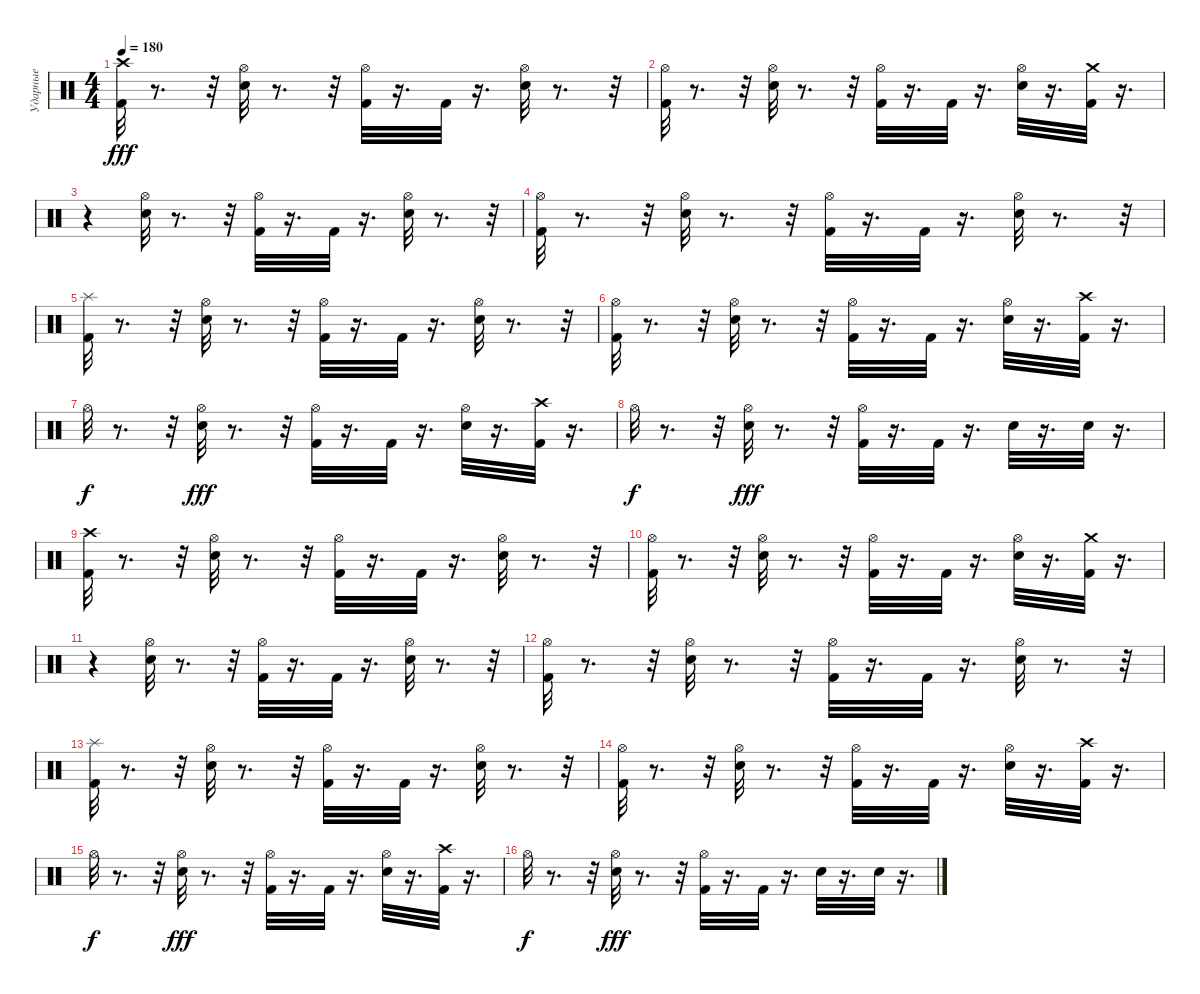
\track ("Ударные" "Ударные") {instrument percussion}
\staff {score}
\articulation defaults
\ts (4 4)
\tempo 180
\clef neutral
\ks c
("Crash high (hit)" "Kick (hit) 2").32{dy fff} r.8{d} r.32 ("Snare (hit) 2" "Hi-Hat (open)").32 r.8{d} r.32 ("Hi-Hat (open)" "Kick (hit) 2").32 r.16{d} "Kick (hit) 2".32 r.16{d} ("Hi-Hat (open)" "Snare (hit) 2").32 r.8{d} r.32 |
("Hi-Hat (open)" "Kick (hit) 2").32 r.8{d} r.32 ("Snare (hit) 2" "Hi-Hat (open)").32 r.8{d} r.32 ("Kick (hit) 2" "Hi-Hat (open)").32 r.16{d} "Kick (hit) 2".32 r.16{d} ("Hi-Hat (open)" "Snare (hit) 2").32 r.16{d} ("Kick (hit) 2" "Crash medium (hit)").32 r.16{d} |
r.4 ("Hi-Hat (open)" "Snare (hit) 2").32 r.8{d} r.32 ("Kick (hit) 2" "Hi-Hat (open)").32 r.16{d} "Kick (hit) 2".32 r.16{d} ("Hi-Hat (open)" "Snare (hit) 2").32 r.8{d} r.32 |
("Hi-Hat (open)" "Kick (hit) 2").32 r.8{d} r.32 ("Snare (hit) 2" "Hi-Hat (open)").32 r.8{d} r.32 ("Hi-Hat (open)" "Kick (hit) 2").32 r.16{d} "Kick (hit) 2".32 r.16{d} ("Snare (hit) 2" "Hi-Hat (open)").32 r.8{d} r.32 |
("Splash (hit)" "Kick (hit) 2").32 r.8{d} r.32 ("Hi-Hat (open)" "Snare (hit) 2").32 r.8{d} r.32 ("Hi-Hat (open)" "Kick (hit) 2").32 r.16{d} "Kick (hit) 2".32 r.16{d} ("Snare (hit) 2" "Hi-Hat (open)").32 r.8{d} r.32 |
("Kick (hit) 2" "Hi-Hat (open)").32 r.8{d} r.32 ("Snare (hit) 2" "Hi-Hat (open)").32 r.8{d} r.32 ("Hi-Hat (open)" "Kick (hit) 2").32 r.16{d} "Kick (hit) 2".32 r.16{d} ("Snare (hit) 2" "Hi-Hat (open)").32 r.16{d} ("Kick (hit) 2" "Crash high (hit)").32 r.16{d} |
"Hi-Hat (open)".32{dy f} r.8{d} r.32 ("Hi-Hat (open)" "Snare (hit) 2").32{dy fff} r.8{d} r.32 ("Hi-Hat (open)" "Kick (hit) 2").32 r.16{d} "Kick (hit) 2".32 r.16{d} ("Snare (hit) 2" "Hi-Hat (open)").32 r.16{d} ("Crash high (hit)" "Kick (hit) 2").32 r.16{d} |
"Hi-Hat (open)".32{dy f} r.8{d} r.32 ("Hi-Hat (open)" "Snare (hit) 2").32{dy fff} r.8{d} r.32 ("Hi-Hat (open)" "Kick (hit) 2").32 r.16{d} "Kick (hit) 2".32 r.16{d} "Snare (hit) 2".32 r.16{d} "Snare (hit) 2".32 r.16{d} |
("Crash high (hit)" "Kick (hit) 2").32 r.8{d} r.32 ("Hi-Hat (open)" "Snare (hit) 2").32 r.8{d} r.32 ("Hi-Hat (open)" "Kick (hit) 2").32 r.16{d} "Kick (hit) 2".32 r.16{d} ("Hi-Hat (open)" "Snare (hit) 2").32 r.8{d} r.32 |
("Kick (hit) 2" "Hi-Hat (open)").32 r.8{d} r.32 ("Snare (hit) 2" "Hi-Hat (open)").32 r.8{d} r.32 ("Kick (hit) 2" "Hi-Hat (open)").32 r.16{d} "Kick (hit) 2".32 r.16{d} ("Hi-Hat (open)" "Snare (hit) 2").32 r.16{d} ("Crash medium (hit)" "Kick (hit) 2").32 r.16{d} |
r.4 ("Hi-Hat (open)" "Snare (hit) 2").32 r.8{d} r.32 ("Kick (hit) 2" "Hi-Hat (open)").32 r.16{d} "Kick (hit) 2".32 r.16{d} ("Hi-Hat (open)" "Snare (hit) 2").32 r.8{d} r.32 |
("Kick (hit) 2" "Hi-Hat (open)").32 r.8{d} r.32 ("Snare (hit) 2" "Hi-Hat (open)").32 r.8{d} r.32 ("Kick (hit) 2" "Hi-Hat (open)").32 r.16{d} "Kick (hit) 2".32 r.16{d} ("Snare (hit) 2" "Hi-Hat (open)").32 r.8{d} r.32 |
("Splash (hit)" "Kick (hit) 2").32 r.8{d} r.32 ("Snare (hit) 2" "Hi-Hat (open)").32 r.8{d} r.32 ("Hi-Hat (open)" "Kick (hit) 2").32 r.16{d} "Kick (hit) 2".32 r.16{d} ("Hi-Hat (open)" "Snare (hit) 2").32 r.8{d} r.32 |
("Kick (hit) 2" "Hi-Hat (open)").32 r.8{d} r.32 ("Snare (hit) 2" "Hi-Hat (open)").32 r.8{d} r.32 ("Hi-Hat (open)" "Kick (hit) 2").32 r.16{d} "Kick (hit) 2".32 r.16{d} ("Hi-Hat (open)" "Snare (hit) 2").32 r.16{d} ("Crash high (hit)" "Kick (hit) 2").32 r.16{d} |
"Hi-Hat (open)".32{dy f} r.8{d} r.32 ("Snare (hit) 2" "Hi-Hat (open)").32{dy fff} r.8{d} r.32 ("Hi-Hat (open)" "Kick (hit) 2").32 r.16{d} "Kick (hit) 2".32 r.16{d} ("Hi-Hat (open)" "Snare (hit) 2").32 r.16{d} ("Crash high (hit)" "Kick (hit) 2").32 r.16{d} |
"Hi-Hat (open)".32{dy f} r.8{d} r.32 ("Hi-Hat (open)" "Snare (hit) 2").32{dy fff} r.8{d} r.32 ("Kick (hit) 2" "Hi-Hat (open)").32 r.16{d} "Kick (hit) 2".32 r.16{d} "Snare (hit) 2".32 r.16{d} "Snare (hit) 2".32 r.16{d}
